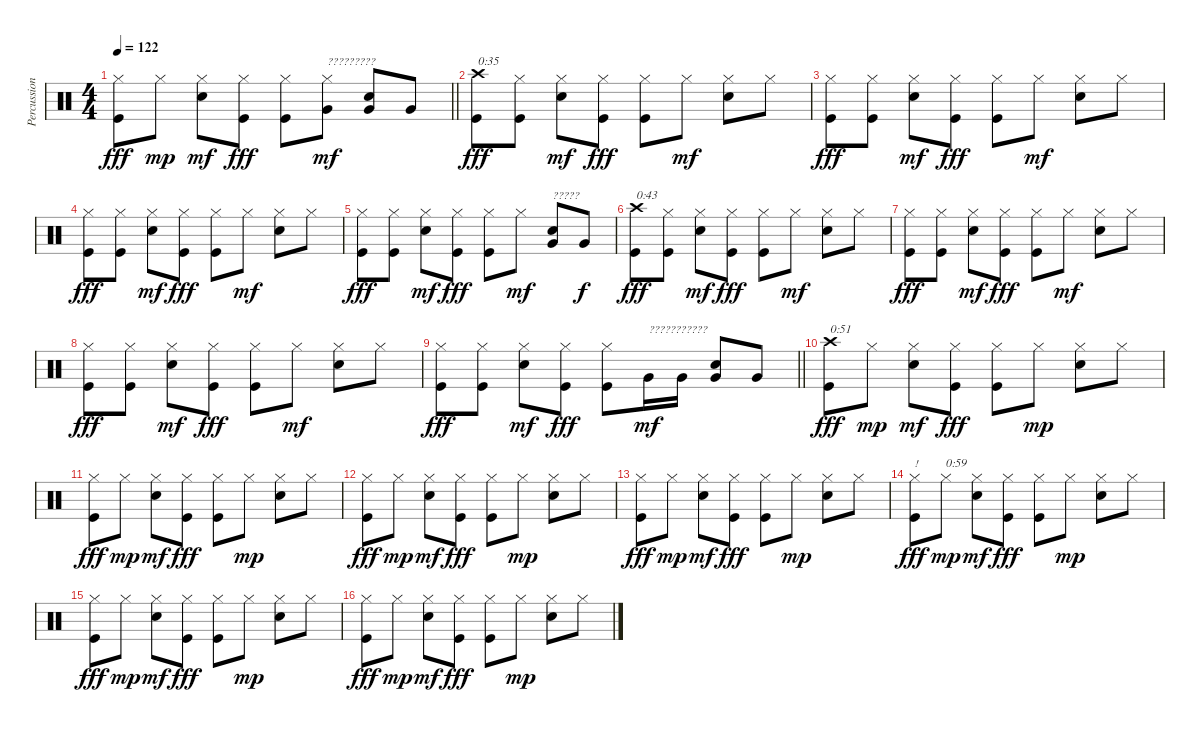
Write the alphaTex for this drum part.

\track ("Percussion" "Percussion") {instrument percussion}
\staff {score}
\articulation defaults
\ts (4 4)
\tempo 122
\clef neutral
\barLineRight lightlight
\ks c
("Hi-Hat (closed)" "Kick (hit)").8{dy fff} "Hi-Hat (closed)".8{dy mp} ("Hi-Hat (closed)" "Snare (hit) 2").8{dy mf} ("Hi-Hat (closed)" "Kick (hit)").8{dy fff} ("Hi-Hat (closed)" "Kick (hit)").8 ("Hi-Hat (closed)" "Very Low Tom (hit)").8{txt "?????????" dy mf} ("Very Low Tom (hit)" "Snare (hit) 2").8 "Very Low Tom (hit)".8 |
("Crash high (hit)" "Kick (hit)").8{txt "0:35" dy fff} ("Hi-Hat (closed)" "Kick (hit)").8 ("Hi-Hat (closed)" "Snare (hit) 2").8{dy mf} ("Hi-Hat (closed)" "Kick (hit)").8{dy fff} ("Hi-Hat (closed)" "Kick (hit)").8 "Hi-Hat (closed)".8{dy mf} ("Hi-Hat (closed)" "Snare (hit) 2").8 "Hi-Hat (closed)".8 |
("Hi-Hat (closed)" "Kick (hit)").8{dy fff} ("Hi-Hat (closed)" "Kick (hit)").8 ("Hi-Hat (closed)" "Snare (hit) 2").8{dy mf} ("Hi-Hat (closed)" "Kick (hit)").8{dy fff} ("Hi-Hat (closed)" "Kick (hit)").8 "Hi-Hat (closed)".8{dy mf} ("Hi-Hat (closed)" "Snare (hit) 2").8 "Hi-Hat (closed)".8 |
("Hi-Hat (closed)" "Kick (hit)").8{dy fff} ("Hi-Hat (closed)" "Kick (hit)").8 ("Hi-Hat (closed)" "Snare (hit) 2").8{dy mf} ("Hi-Hat (closed)" "Kick (hit)").8{dy fff} ("Hi-Hat (closed)" "Kick (hit)").8 "Hi-Hat (closed)".8{dy mf} ("Hi-Hat (closed)" "Snare (hit) 2").8 "Hi-Hat (closed)".8 |
("Hi-Hat (closed)" "Kick (hit)").8{dy fff} ("Hi-Hat (closed)" "Kick (hit)").8 ("Hi-Hat (closed)" "Snare (hit) 2").8{dy mf} ("Hi-Hat (closed)" "Kick (hit)").8{dy fff} ("Hi-Hat (closed)" "Kick (hit)").8 "Hi-Hat (closed)".8{dy mf} ("Very Low Tom (hit)" "Snare (hit) 2").8{txt "?????"} "Very Low Tom (hit)".8{dy f} |
("Crash high (hit)" "Kick (hit)").8{txt "0:43" dy fff} ("Hi-Hat (closed)" "Kick (hit)").8 ("Hi-Hat (closed)" "Snare (hit) 2").8{dy mf} ("Hi-Hat (closed)" "Kick (hit)").8{dy fff} ("Hi-Hat (closed)" "Kick (hit)").8 "Hi-Hat (closed)".8{dy mf} ("Hi-Hat (closed)" "Snare (hit) 2").8 "Hi-Hat (closed)".8 |
("Hi-Hat (closed)" "Kick (hit)").8{dy fff} ("Hi-Hat (closed)" "Kick (hit)").8 ("Hi-Hat (closed)" "Snare (hit) 2").8{dy mf} ("Hi-Hat (closed)" "Kick (hit)").8{dy fff} ("Hi-Hat (closed)" "Kick (hit)").8 "Hi-Hat (closed)".8{dy mf} ("Hi-Hat (closed)" "Snare (hit) 2").8 "Hi-Hat (closed)".8 |
("Hi-Hat (closed)" "Kick (hit)").8{dy fff} ("Hi-Hat (closed)" "Kick (hit)").8 ("Hi-Hat (closed)" "Snare (hit) 2").8{dy mf} ("Hi-Hat (closed)" "Kick (hit)").8{dy fff} ("Hi-Hat (closed)" "Kick (hit)").8 "Hi-Hat (closed)".8{dy mf} ("Hi-Hat (closed)" "Snare (hit) 2").8 "Hi-Hat (closed)".8 |
\barLineRight lightlight
("Hi-Hat (closed)" "Kick (hit)").8{dy fff} ("Hi-Hat (closed)" "Kick (hit)").8 ("Hi-Hat (closed)" "Snare (hit) 2").8{dy mf} ("Hi-Hat (closed)" "Kick (hit)").8{dy fff} ("Hi-Hat (closed)" "Kick (hit)").8 "Very Low Tom (hit)".16{txt "???????????" dy mf} "Very Low Tom (hit)".16 ("Very Low Tom (hit)" "Snare (hit) 2").8 "Very Low Tom (hit)".8 |
("Crash high (hit)" "Kick (hit)").8{txt "0:51" dy fff} "Hi-Hat (closed)".8{dy mp} ("Hi-Hat (closed)" "Snare (hit) 2").8{dy mf} ("Hi-Hat (closed)" "Kick (hit)").8{dy fff} ("Hi-Hat (closed)" "Kick (hit)").8 "Hi-Hat (closed)".8{dy mp} ("Hi-Hat (closed)" "Snare (hit) 2").8 "Hi-Hat (closed)".8 |
("Hi-Hat (closed)" "Kick (hit)").8{dy fff} "Hi-Hat (closed)".8{dy mp} ("Hi-Hat (closed)" "Snare (hit) 2").8{dy mf} ("Hi-Hat (closed)" "Kick (hit)").8{dy fff} ("Hi-Hat (closed)" "Kick (hit)").8 "Hi-Hat (closed)".8{dy mp} ("Hi-Hat (closed)" "Snare (hit) 2").8 "Hi-Hat (closed)".8 |
("Hi-Hat (closed)" "Kick (hit)").8{dy fff} "Hi-Hat (closed)".8{dy mp} ("Hi-Hat (closed)" "Snare (hit) 2").8{dy mf} ("Hi-Hat (closed)" "Kick (hit)").8{dy fff} ("Hi-Hat (closed)" "Kick (hit)").8 "Hi-Hat (closed)".8{dy mp} ("Hi-Hat (closed)" "Snare (hit) 2").8 "Hi-Hat (closed)".8 |
("Hi-Hat (closed)" "Kick (hit)").8{dy fff} "Hi-Hat (closed)".8{dy mp} ("Hi-Hat (closed)" "Snare (hit) 2").8{dy mf} ("Hi-Hat (closed)" "Kick (hit)").8{dy fff} ("Hi-Hat (closed)" "Kick (hit)").8 "Hi-Hat (closed)".8{dy mp} ("Hi-Hat (closed)" "Snare (hit) 2").8 "Hi-Hat (closed)".8 |
("Hi-Hat (closed)" "Kick (hit)").8{txt "!" dy fff} "Hi-Hat (closed)".8{txt "0:59" dy mp} ("Hi-Hat (closed)" "Snare (hit) 2").8{dy mf} ("Hi-Hat (closed)" "Kick (hit)").8{dy fff} ("Hi-Hat (closed)" "Kick (hit)").8 "Hi-Hat (closed)".8{dy mp} ("Hi-Hat (closed)" "Snare (hit) 2").8 "Hi-Hat (closed)".8 |
("Hi-Hat (closed)" "Kick (hit)").8{dy fff} "Hi-Hat (closed)".8{dy mp} ("Hi-Hat (closed)" "Snare (hit) 2").8{dy mf} ("Hi-Hat (closed)" "Kick (hit)").8{dy fff} ("Hi-Hat (closed)" "Kick (hit)").8 "Hi-Hat (closed)".8{dy mp} ("Hi-Hat (closed)" "Snare (hit) 2").8 "Hi-Hat (closed)".8 |
("Hi-Hat (closed)" "Kick (hit)").8{dy fff} "Hi-Hat (closed)".8{dy mp} ("Hi-Hat (closed)" "Snare (hit) 2").8{dy mf} ("Hi-Hat (closed)" "Kick (hit)").8{dy fff} ("Hi-Hat (closed)" "Kick (hit)").8 "Hi-Hat (closed)".8{dy mp} ("Hi-Hat (closed)" "Snare (hit) 2").8 "Hi-Hat (closed)".8
